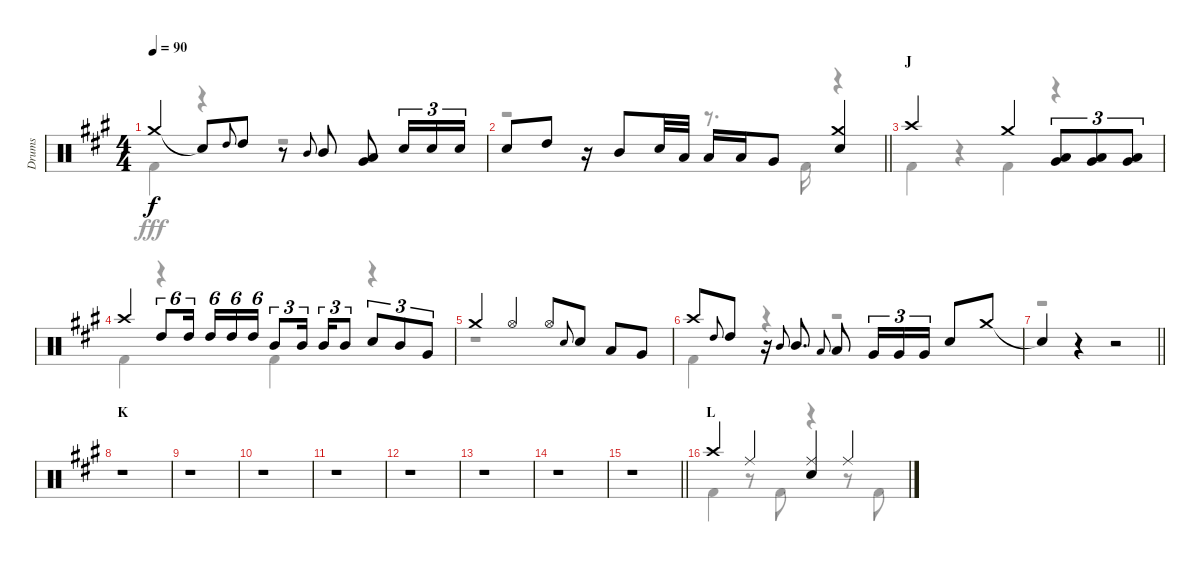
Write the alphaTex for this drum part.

\track ("Drums" "Drums") {instrument percussion}
\staff {score}
\articulation defaults
\voice
\ts (4 4)
\tempo 90
\clef neutral
\ks a "Crash medium (hit)".4{dy f} "Snare (hit)"{t}.8 "High Tom (hit)".8{gr onbeat} "High Tom (hit)".8
r.8 "Mid Tom (hit)".8{gr onbeat} "Mid Tom (hit)".8 ("Low Tom (hit)" "Very Low Tom (hit)").8 "Snare (hit) 2".16{tu (3 2)} "Snare (hit) 2".16{tu (3 2)} "Snare (hit) 2".16{tu (3 2)} |
\barLineRight lightlight "Snare (hit) 2".8 "High Tom (hit)".8
r.16 "Mid Tom (hit)".8 "Snare (hit)".32 "Low Tom (hit)".32 "Low Tom (hit)".16 "Low Tom (hit)".16 "Very Low Tom (hit)".8 ("Crash medium (hit)" "Snare (hit) 2").4 |
\section ("" "J")
"Crash high (hit)".2 "Crash medium (hit)".4 ("Low Tom (hit)" "Very Low Tom (hit)").8{tu (3 2)} ("Low Tom (hit)" "Very Low Tom (hit)").8{tu (3 2)} ("Low Tom (hit)" "Very Low Tom (hit)").8{tu (3 2)} |
"Crash high (hit)".4 "High Tom (hit)".8{tu (6 4)} "High Tom (hit)".16{tu (6 4) beam splitsecondary} "High Tom (hit)".16{tu (6 4)} "High Tom (hit)".16{tu (6 4)} "High Tom (hit)".16{tu (6 4)} "Mid Tom (hit)".8{tu (3 2)} "Mid Tom (hit)".16{tu (3 2) beam splitsecondary} "Mid Tom (hit)".16{tu (3 2)} "Mid Tom (hit)".8{tu (3 2)} "Snare (hit) 2".8{tu (3 2)} "Mid Tom (hit)".8{tu (3 2)} "Very Low Tom (hit)".8{tu (3 2)} |
"Crash medium (hit)".4 "Hi-Hat (open)".4 "Hi-Hat (open)".8 "Snare (hit) 2".8{gr onbeat} "Snare (hit) 2".8 "Low Tom (hit)".8 "Very Low Tom (hit)".8 |
"Crash high (hit)".8 "High Tom (hit)".8{gr onbeat} "High Tom (hit)".8 r.16 "Mid Tom (hit)".8{gr onbeat} "Mid Tom (hit)".8{d} "Low Tom (hit)".8{gr onbeat} "Low Tom (hit)".8 "Very Low Tom (hit)".16{tu (3 2)} "Very Low Tom (hit)".16{tu (3 2)} "Very Low Tom (hit)".16{tu (3 2)} "Snare (hit) 2".8 "Crash medium (hit)".8 |
\barLineRight lightlight "Snare (hit)"{t}.4
r.4 r.2 |
\section ("" "K")
r.1 |
r.1 |
r.1 |
r.1 |
r.1 |
r.1 |
r.1 |
\barLineRight lightlight
r.1 |
\section ("" "L")
"Crash high (hit)".4 "Ride (middle)".4 ("Ride (middle)" "Snare (hit) 2").4 "Ride (middle)".4
\voice
\clef neutral
\ottava regular
\simile none
\ks a "Kick (hit) 2".4{dy fff}
r.4 r.2 |
\barLineRight lightlight
r.2 r.8{d} "Kick (hit) 2".16 r.4 |
"Kick (hit) 2".4 r.4 "Kick (hit) 2".4 r.4 |
"Kick (hit) 2".4 r.4 "Kick (hit) 2".4 r.4 |
r.1 |
"Kick (hit) 2".4 r.4 r.2 |
\barLineRight lightlight
r.1 |
r.1 |
r.1 |
r.1 |
r.1 |
r.1 |
r.1 |
r.1 |
\barLineRight lightlight
r.1 |
"Kick (hit) 2".4 r.8 "Kick (hit) 2".8 r.4 r.8 "Kick (hit) 2".8
